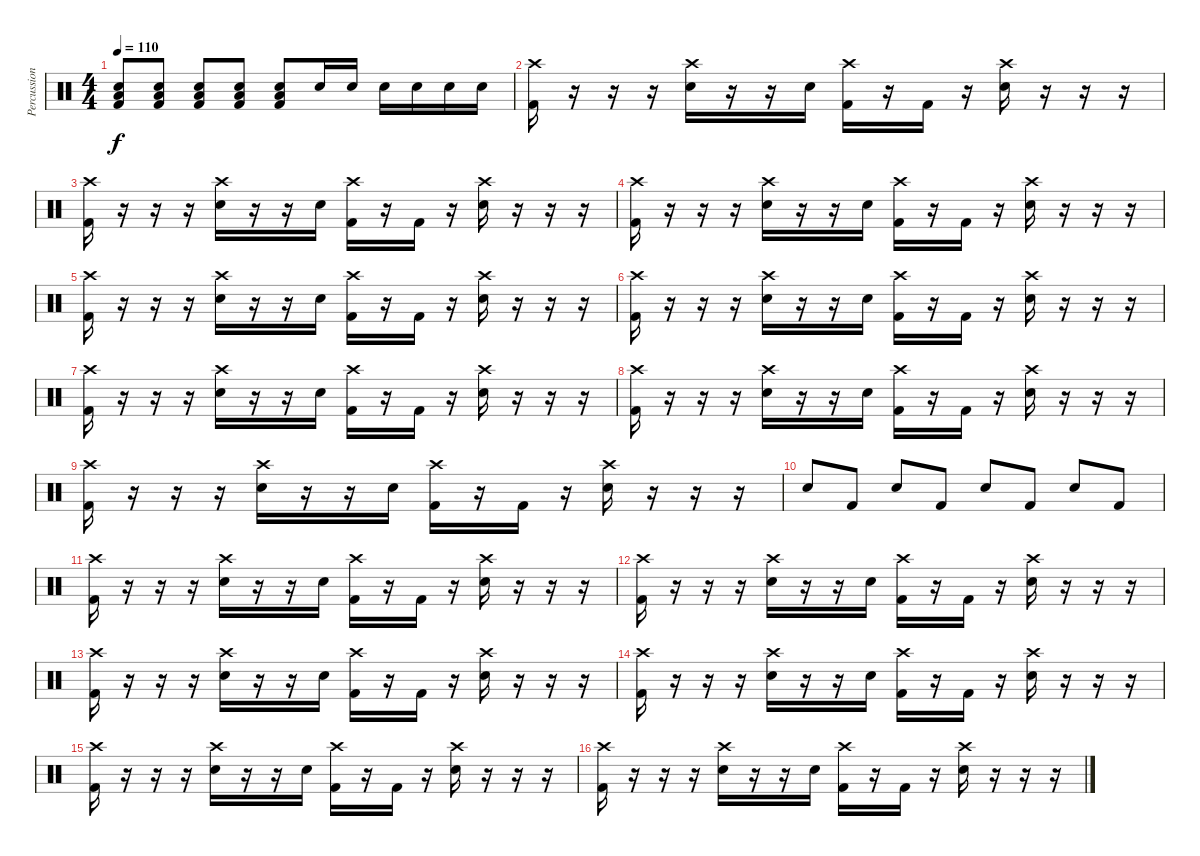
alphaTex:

\track ("Percussion" "Percussion") {instrument percussion}
\staff {score}
\articulation defaults
\ts (4 4)
\tempo 110
\clef neutral
\ks c
("Snare (hit) 2" "Low Floor Tom (hit)" "Kick (hit) 2").8{dy f} ("Snare (hit) 2" "Low Floor Tom (hit)" "Kick (hit) 2").8 ("Snare (hit) 2" "Low Floor Tom (hit)" "Kick (hit) 2").8 ("Snare (hit) 2" "Low Floor Tom (hit)" "Kick (hit) 2").8 ("Snare (hit) 2" "Low Floor Tom (hit)" "Kick (hit) 2").8 "Snare (hit) 2".16 "Snare (hit) 2".16 "Snare (hit) 2".16 "Snare (hit) 2".16 "Snare (hit) 2".16 "Snare (hit) 2".16 |
("Crash high (hit)" "Kick (hit) 2").16 r.16 r.16 r.16 ("Crash high (hit)" "Snare (hit) 2").16 r.16 r.16 "Snare (hit) 2".16 ("Crash high (hit)" "Kick (hit) 2").16 r.16 "Kick (hit) 2".16 r.16 ("Crash high (hit)" "Snare (hit) 2").16 r.16 r.16 r.16 |
("Crash high (hit)" "Kick (hit) 2").16 r.16 r.16 r.16 ("Crash high (hit)" "Snare (hit) 2").16 r.16 r.16 "Snare (hit) 2".16 ("Crash high (hit)" "Kick (hit) 2").16 r.16 "Kick (hit) 2".16 r.16 ("Crash high (hit)" "Snare (hit) 2").16 r.16 r.16 r.16 |
("Crash high (hit)" "Kick (hit) 2").16 r.16 r.16 r.16 ("Crash high (hit)" "Snare (hit) 2").16 r.16 r.16 "Snare (hit) 2".16 ("Crash high (hit)" "Kick (hit) 2").16 r.16 "Kick (hit) 2".16 r.16 ("Crash high (hit)" "Snare (hit) 2").16 r.16 r.16 r.16 |
("Crash high (hit)" "Kick (hit) 2").16 r.16 r.16 r.16 ("Crash high (hit)" "Snare (hit) 2").16 r.16 r.16 "Snare (hit) 2".16 ("Crash high (hit)" "Kick (hit) 2").16 r.16 "Kick (hit) 2".16 r.16 ("Crash high (hit)" "Snare (hit) 2").16 r.16 r.16 r.16 |
("Crash high (hit)" "Kick (hit) 2").16 r.16 r.16 r.16 ("Crash high (hit)" "Snare (hit) 2").16 r.16 r.16 "Snare (hit) 2".16 ("Crash high (hit)" "Kick (hit) 2").16 r.16 "Kick (hit) 2".16 r.16 ("Crash high (hit)" "Snare (hit) 2").16 r.16 r.16 r.16 |
("Crash high (hit)" "Kick (hit) 2").16 r.16 r.16 r.16 ("Crash high (hit)" "Snare (hit) 2").16 r.16 r.16 "Snare (hit) 2".16 ("Crash high (hit)" "Kick (hit) 2").16 r.16 "Kick (hit) 2".16 r.16 ("Crash high (hit)" "Snare (hit) 2").16 r.16 r.16 r.16 |
("Crash high (hit)" "Kick (hit) 2").16 r.16 r.16 r.16 ("Crash high (hit)" "Snare (hit) 2").16 r.16 r.16 "Snare (hit) 2".16 ("Crash high (hit)" "Kick (hit) 2").16 r.16 "Kick (hit) 2".16 r.16 ("Crash high (hit)" "Snare (hit) 2").16 r.16 r.16 r.16 |
("Crash high (hit)" "Kick (hit) 2").16 r.16 r.16 r.16 ("Crash high (hit)" "Snare (hit) 2").16 r.16 r.16 "Snare (hit) 2".16 ("Crash high (hit)" "Kick (hit) 2").16 r.16 "Kick (hit) 2".16 r.16 ("Crash high (hit)" "Snare (hit) 2").16 r.16 r.16 r.16 |
"Snare (hit) 2".8 "Kick (hit) 2".8 "Snare (hit) 2".8 "Kick (hit) 2".8 "Snare (hit) 2".8 "Kick (hit) 2".8 "Snare (hit) 2".8 "Kick (hit) 2".8 |
("Crash high (hit)" "Kick (hit) 2").16 r.16 r.16 r.16 ("Crash high (hit)" "Snare (hit) 2").16 r.16 r.16 "Snare (hit) 2".16 ("Crash high (hit)" "Kick (hit) 2").16 r.16 "Kick (hit) 2".16 r.16 ("Crash high (hit)" "Snare (hit) 2").16 r.16 r.16 r.16 |
("Crash high (hit)" "Kick (hit) 2").16 r.16 r.16 r.16 ("Crash high (hit)" "Snare (hit) 2").16 r.16 r.16 "Snare (hit) 2".16 ("Crash high (hit)" "Kick (hit) 2").16 r.16 "Kick (hit) 2".16 r.16 ("Crash high (hit)" "Snare (hit) 2").16 r.16 r.16 r.16 |
("Crash high (hit)" "Kick (hit) 2").16 r.16 r.16 r.16 ("Crash high (hit)" "Snare (hit) 2").16 r.16 r.16 "Snare (hit) 2".16 ("Crash high (hit)" "Kick (hit) 2").16 r.16 "Kick (hit) 2".16 r.16 ("Crash high (hit)" "Snare (hit) 2").16 r.16 r.16 r.16 |
("Crash high (hit)" "Kick (hit) 2").16 r.16 r.16 r.16 ("Crash high (hit)" "Snare (hit) 2").16 r.16 r.16 "Snare (hit) 2".16 ("Crash high (hit)" "Kick (hit) 2").16 r.16 "Kick (hit) 2".16 r.16 ("Crash high (hit)" "Snare (hit) 2").16 r.16 r.16 r.16 |
("Crash high (hit)" "Kick (hit) 2").16 r.16 r.16 r.16 ("Crash high (hit)" "Snare (hit) 2").16 r.16 r.16 "Snare (hit) 2".16 ("Crash high (hit)" "Kick (hit) 2").16 r.16 "Kick (hit) 2".16 r.16 ("Crash high (hit)" "Snare (hit) 2").16 r.16 r.16 r.16 |
("Crash high (hit)" "Kick (hit) 2").16 r.16 r.16 r.16 ("Crash high (hit)" "Snare (hit) 2").16 r.16 r.16 "Snare (hit) 2".16 ("Crash high (hit)" "Kick (hit) 2").16 r.16 "Kick (hit) 2".16 r.16 ("Crash high (hit)" "Snare (hit) 2").16 r.16 r.16 r.16
